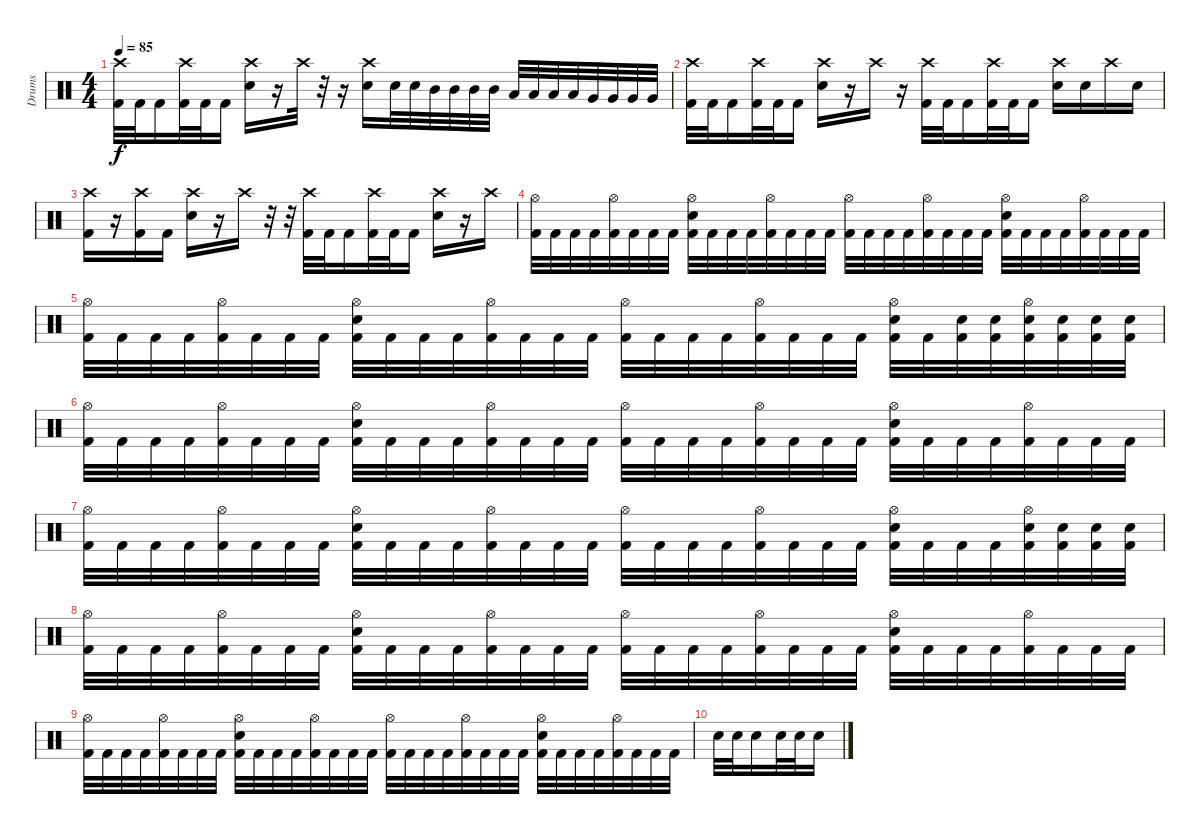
\track ("Drums" "Drums") {instrument percussion}
\staff {score}
\articulation defaults
\ts (4 4)
\tempo 85
\clef neutral
\ks c
("Crash high (hit)" "Kick (hit) 2").32{dy f} "Kick (hit) 2".32 "Kick (hit) 2".16 ("Crash high (hit)" "Kick (hit) 2").32 "Kick (hit) 2".32 "Kick (hit) 2".16 ("Crash high (hit)" "Electric Snare (hit)").16 r.16 "Crash high (hit)".32 r.32 r.16 ("Crash high (hit)" "Electric Snare (hit)").16 "Electric Snare (hit)".32 "Electric Snare (hit)".32 "Mid Tom (hit)".32 "Mid Tom (hit)".32 "Mid Tom (hit)".32 "Mid Tom (hit)".32 "Low Tom (hit)".32 "Low Tom (hit)".32 "Low Tom (hit)".32 "Low Tom (hit)".32 "Very Low Tom (hit)".32 "Very Low Tom (hit)".32 "Very Low Tom (hit)".32 "Very Low Tom (hit)".32 |
("Crash high (hit)" "Kick (hit) 2").32 "Kick (hit) 2".32 "Kick (hit) 2".16 ("Crash high (hit)" "Kick (hit) 2").32 "Kick (hit) 2".32 "Kick (hit) 2".16 ("Crash high (hit)" "Electric Snare (hit)").16 r.16 "Crash high (hit)".16 r.16 ("Crash high (hit)" "Kick (hit) 2").32 "Kick (hit) 2".32 "Kick (hit) 2".16 ("Crash high (hit)" "Kick (hit) 2").32 "Kick (hit) 2".32 "Kick (hit) 2".16 ("Crash high (hit)" "Electric Snare (hit)").16 "Electric Snare (hit)".16 "Crash high (hit)".16 "Electric Snare (hit)".16 |
("Crash high (hit)" "Kick (hit) 2").16 r.16 ("Crash high (hit)" "Kick (hit) 2").16 "Kick (hit) 2".16 ("Crash high (hit)" "Electric Snare (hit)").16 r.16 "Crash high (hit)".16 r.32 r.32 ("Crash high (hit)" "Kick (hit) 2").32 "Kick (hit) 2".32 "Kick (hit) 2".16 ("Crash high (hit)" "Kick (hit) 2").32 "Kick (hit) 2".32 "Kick (hit) 2".16 ("Crash high (hit)" "Electric Snare (hit)").16 r.16 "Crash high (hit)".16 |
("Hi-Hat (open)" "Kick (hit) 2").32 "Kick (hit) 2".32 "Kick (hit) 2".32 "Kick (hit) 2".32 ("Hi-Hat (open)" "Kick (hit) 2").32 "Kick (hit) 2".32 "Kick (hit) 2".32 "Kick (hit) 2".32 ("Hi-Hat (open)" "Electric Snare (hit)" "Kick (hit) 2").32 "Kick (hit) 2".32 "Kick (hit) 2".32 "Kick (hit) 2".32 ("Hi-Hat (open)" "Kick (hit) 2").32 "Kick (hit) 2".32 "Kick (hit) 2".32 "Kick (hit) 2".32 ("Hi-Hat (open)" "Kick (hit) 2").32 "Kick (hit) 2".32 "Kick (hit) 2".32 "Kick (hit) 2".32 ("Hi-Hat (open)" "Kick (hit) 2").32 "Kick (hit) 2".32 "Kick (hit) 2".32 "Kick (hit) 2".32 ("Hi-Hat (open)" "Electric Snare (hit)" "Kick (hit) 2").32 "Kick (hit) 2".32 "Kick (hit) 2".32 "Kick (hit) 2".32 ("Hi-Hat (open)" "Kick (hit) 2").32 "Kick (hit) 2".32 "Kick (hit) 2".32 "Kick (hit) 2".32 |
("Hi-Hat (open)" "Kick (hit) 2").32 "Kick (hit) 2".32 "Kick (hit) 2".32 "Kick (hit) 2".32 ("Hi-Hat (open)" "Kick (hit) 2").32 "Kick (hit) 2".32 "Kick (hit) 2".32 "Kick (hit) 2".32 ("Hi-Hat (open)" "Electric Snare (hit)" "Kick (hit) 2").32 "Kick (hit) 2".32 "Kick (hit) 2".32 "Kick (hit) 2".32 ("Hi-Hat (open)" "Kick (hit) 2").32 "Kick (hit) 2".32 "Kick (hit) 2".32 "Kick (hit) 2".32 ("Hi-Hat (open)" "Kick (hit) 2").32 "Kick (hit) 2".32 "Kick (hit) 2".32 "Kick (hit) 2".32 ("Hi-Hat (open)" "Kick (hit) 2").32 "Kick (hit) 2".32 "Kick (hit) 2".32 "Kick (hit) 2".32 ("Hi-Hat (open)" "Electric Snare (hit)" "Kick (hit) 2").32 "Kick (hit) 2".32 ("Electric Snare (hit)" "Kick (hit) 2").32 ("Electric Snare (hit)" "Kick (hit) 2").32 ("Hi-Hat (open)" "Electric Snare (hit)" "Kick (hit) 2").32 ("Electric Snare (hit)" "Kick (hit) 2").32 ("Electric Snare (hit)" "Kick (hit) 2").32 ("Electric Snare (hit)" "Kick (hit) 2").32 |
("Hi-Hat (open)" "Kick (hit) 2").32 "Kick (hit) 2".32 "Kick (hit) 2".32 "Kick (hit) 2".32 ("Hi-Hat (open)" "Kick (hit) 2").32 "Kick (hit) 2".32 "Kick (hit) 2".32 "Kick (hit) 2".32 ("Hi-Hat (open)" "Electric Snare (hit)" "Kick (hit) 2").32 "Kick (hit) 2".32 "Kick (hit) 2".32 "Kick (hit) 2".32 ("Hi-Hat (open)" "Kick (hit) 2").32 "Kick (hit) 2".32 "Kick (hit) 2".32 "Kick (hit) 2".32 ("Hi-Hat (open)" "Kick (hit) 2").32 "Kick (hit) 2".32 "Kick (hit) 2".32 "Kick (hit) 2".32 ("Hi-Hat (open)" "Kick (hit) 2").32 "Kick (hit) 2".32 "Kick (hit) 2".32 "Kick (hit) 2".32 ("Hi-Hat (open)" "Electric Snare (hit)" "Kick (hit) 2").32 "Kick (hit) 2".32 "Kick (hit) 2".32 "Kick (hit) 2".32 ("Hi-Hat (open)" "Kick (hit) 2").32 "Kick (hit) 2".32 "Kick (hit) 2".32 "Kick (hit) 2".32 |
("Hi-Hat (open)" "Kick (hit) 2").32 "Kick (hit) 2".32 "Kick (hit) 2".32 "Kick (hit) 2".32 ("Hi-Hat (open)" "Kick (hit) 2").32 "Kick (hit) 2".32 "Kick (hit) 2".32 "Kick (hit) 2".32 ("Hi-Hat (open)" "Electric Snare (hit)" "Kick (hit) 2").32 "Kick (hit) 2".32 "Kick (hit) 2".32 "Kick (hit) 2".32 ("Hi-Hat (open)" "Kick (hit) 2").32 "Kick (hit) 2".32 "Kick (hit) 2".32 "Kick (hit) 2".32 ("Hi-Hat (open)" "Kick (hit) 2").32 "Kick (hit) 2".32 "Kick (hit) 2".32 "Kick (hit) 2".32 ("Hi-Hat (open)" "Kick (hit) 2").32 "Kick (hit) 2".32 "Kick (hit) 2".32 "Kick (hit) 2".32 ("Hi-Hat (open)" "Electric Snare (hit)" "Kick (hit) 2").32 "Kick (hit) 2".32 "Kick (hit) 2".32 "Kick (hit) 2".32 ("Hi-Hat (open)" "Electric Snare (hit)" "Kick (hit) 2").32 ("Electric Snare (hit)" "Kick (hit) 2").32 ("Electric Snare (hit)" "Kick (hit) 2").32 ("Electric Snare (hit)" "Kick (hit) 2").32 |
("Hi-Hat (open)" "Kick (hit) 2").32 "Kick (hit) 2".32 "Kick (hit) 2".32 "Kick (hit) 2".32 ("Hi-Hat (open)" "Kick (hit) 2").32 "Kick (hit) 2".32 "Kick (hit) 2".32 "Kick (hit) 2".32 ("Hi-Hat (open)" "Electric Snare (hit)" "Kick (hit) 2").32 "Kick (hit) 2".32 "Kick (hit) 2".32 "Kick (hit) 2".32 ("Hi-Hat (open)" "Kick (hit) 2").32 "Kick (hit) 2".32 "Kick (hit) 2".32 "Kick (hit) 2".32 ("Hi-Hat (open)" "Kick (hit) 2").32 "Kick (hit) 2".32 "Kick (hit) 2".32 "Kick (hit) 2".32 ("Hi-Hat (open)" "Kick (hit) 2").32 "Kick (hit) 2".32 "Kick (hit) 2".32 "Kick (hit) 2".32 ("Hi-Hat (open)" "Electric Snare (hit)" "Kick (hit) 2").32 "Kick (hit) 2".32 "Kick (hit) 2".32 "Kick (hit) 2".32 ("Hi-Hat (open)" "Kick (hit) 2").32 "Kick (hit) 2".32 "Kick (hit) 2".32 "Kick (hit) 2".32 |
("Hi-Hat (open)" "Kick (hit) 2").32 "Kick (hit) 2".32 "Kick (hit) 2".32 "Kick (hit) 2".32 ("Hi-Hat (open)" "Kick (hit) 2").32 "Kick (hit) 2".32 "Kick (hit) 2".32 "Kick (hit) 2".32 ("Hi-Hat (open)" "Electric Snare (hit)" "Kick (hit) 2").32 "Kick (hit) 2".32 "Kick (hit) 2".32 "Kick (hit) 2".32 ("Hi-Hat (open)" "Kick (hit) 2").32 "Kick (hit) 2".32 "Kick (hit) 2".32 "Kick (hit) 2".32 ("Hi-Hat (open)" "Kick (hit) 2").32 "Kick (hit) 2".32 "Kick (hit) 2".32 "Kick (hit) 2".32 ("Hi-Hat (open)" "Kick (hit) 2").32 "Kick (hit) 2".32 "Kick (hit) 2".32 "Kick (hit) 2".32 ("Hi-Hat (open)" "Electric Snare (hit)" "Kick (hit) 2").32 "Kick (hit) 2".32 "Kick (hit) 2".32 "Kick (hit) 2".32 ("Hi-Hat (open)" "Kick (hit) 2").32 "Kick (hit) 2".32 "Kick (hit) 2".32 "Kick (hit) 2".32 |
"Electric Snare (hit)".32 "Electric Snare (hit)".32 "Electric Snare (hit)".16 "Electric Snare (hit)".32 "Electric Snare (hit)".32 "Electric Snare (hit)".16
